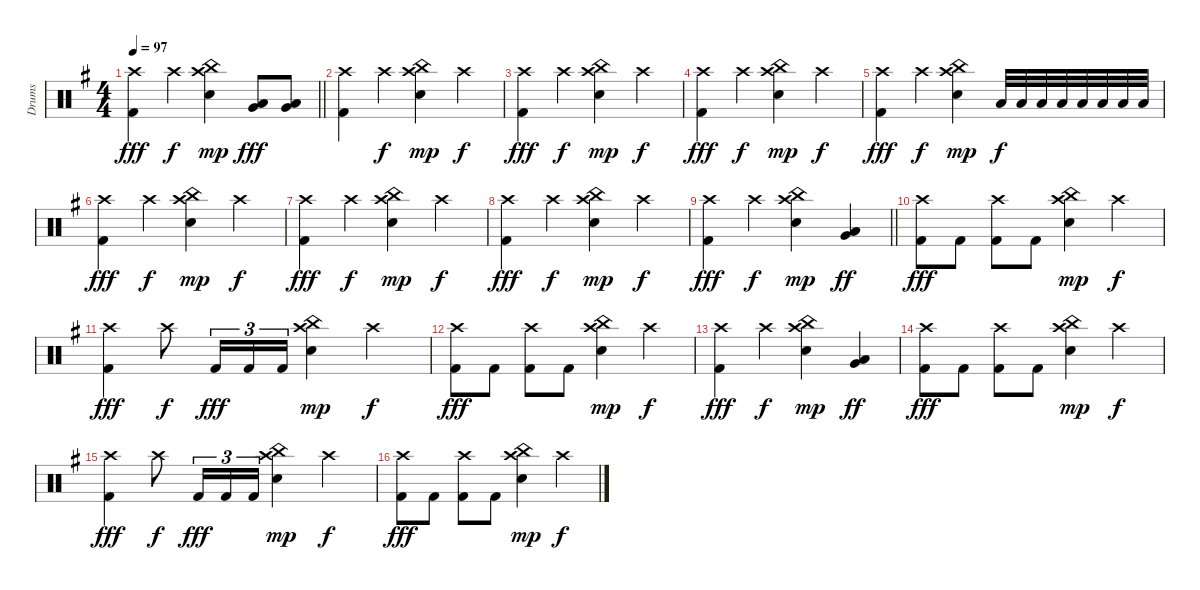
\track ("Drums" "Drums") {instrument percussion}
\staff {score}
\articulation defaults
\ts (4 4)
\tempo 97
\clef neutral
\barLineRight lightlight
\ks eminor
("Crash high (hit)" "Kick (hit) 2").4{dy fff} "Crash high (hit)".4{dy f} ("Crash high (hit)" "China (hit)" "Snare (hit) 2").4{dy mp} ("Low Tom (hit)" "Very Low Tom (hit)").8{dy fff} ("Low Tom (hit)" "Very Low Tom (hit)").8 |
("Crash high (hit)" "Kick (hit) 2").4 "Crash high (hit)".4{dy f} ("Crash high (hit)" "China (hit)" "Snare (hit) 2").4{dy mp} "Crash high (hit)".4{dy f} |
("Crash high (hit)" "Kick (hit) 2").4{dy fff} "Crash high (hit)".4{dy f} ("Crash high (hit)" "China (hit)" "Snare (hit) 2").4{dy mp} "Crash high (hit)".4{dy f} |
("Crash high (hit)" "Kick (hit) 2").4{dy fff} "Crash high (hit)".4{dy f} ("Crash high (hit)" "China (hit)" "Snare (hit) 2").4{dy mp} "Crash high (hit)".4{dy f} |
("Crash high (hit)" "Kick (hit) 2").4{dy fff} "Crash high (hit)".4{dy f} ("Crash high (hit)" "China (hit)" "Snare (hit) 2").4{dy mp} "Low Tom (hit)".32{dy f} "Low Tom (hit)".32 "Low Tom (hit)".32 "Low Tom (hit)".32 "Low Tom (hit)".32 "Low Tom (hit)".32 "Low Tom (hit)".32 "Low Tom (hit)".32 |
("Crash high (hit)" "Kick (hit) 2").4{dy fff} "Crash high (hit)".4{dy f} ("Crash high (hit)" "China (hit)" "Snare (hit) 2").4{dy mp} "Crash high (hit)".4{dy f} |
("Crash high (hit)" "Kick (hit) 2").4{dy fff} "Crash high (hit)".4{dy f} ("Crash high (hit)" "China (hit)" "Snare (hit) 2").4{dy mp} "Crash high (hit)".4{dy f} |
("Crash high (hit)" "Kick (hit) 2").4{dy fff} "Crash high (hit)".4{dy f} ("Crash high (hit)" "China (hit)" "Snare (hit) 2").4{dy mp} "Crash high (hit)".4{dy f} |
\barLineRight lightlight
("Crash high (hit)" "Kick (hit) 2").4{dy fff} "Crash high (hit)".4{dy f} ("Crash high (hit)" "China (hit)" "Snare (hit) 2").4{dy mp} ("Low Tom (hit)" "Very Low Tom (hit)").4{dy ff} |
("Crash high (hit)" "Kick (hit) 2").8{dy fff} "Kick (hit) 2".8 ("Crash high (hit)" "Kick (hit) 2").8 "Kick (hit) 2".8 ("Crash high (hit)" "China (hit)" "Snare (hit) 2").4{dy mp} "Crash high (hit)".4{dy f} |
("Crash high (hit)" "Kick (hit) 2").4{dy fff} "Crash high (hit)".8{dy f} "Kick (hit) 2".16{tu (3 2) dy fff} "Kick (hit) 2".16{tu (3 2)} "Kick (hit) 2".16{tu (3 2)} ("Crash high (hit)" "China (hit)" "Snare (hit) 2").4{dy mp} "Crash high (hit)".4{dy f} |
("Crash high (hit)" "Kick (hit) 2").8{dy fff} "Kick (hit) 2".8 ("Crash high (hit)" "Kick (hit) 2").8 "Kick (hit) 2".8 ("Crash high (hit)" "China (hit)" "Snare (hit) 2").4{dy mp} "Crash high (hit)".4{dy f} |
("Crash high (hit)" "Kick (hit) 2").4{dy fff} "Crash high (hit)".4{dy f} ("Crash high (hit)" "China (hit)" "Snare (hit) 2").4{dy mp} ("Low Tom (hit)" "Very Low Tom (hit)").4{dy ff} |
("Crash high (hit)" "Kick (hit) 2").8{dy fff} "Kick (hit) 2".8 ("Crash high (hit)" "Kick (hit) 2").8 "Kick (hit) 2".8 ("Crash high (hit)" "China (hit)" "Snare (hit) 2").4{dy mp} "Crash high (hit)".4{dy f} |
("Crash high (hit)" "Kick (hit) 2").4{dy fff} "Crash high (hit)".8{dy f} "Kick (hit) 2".16{tu (3 2) dy fff} "Kick (hit) 2".16{tu (3 2)} "Kick (hit) 2".16{tu (3 2)} ("Crash high (hit)" "China (hit)" "Snare (hit) 2").4{dy mp} "Crash high (hit)".4{dy f} |
("Crash high (hit)" "Kick (hit) 2").8{dy fff} "Kick (hit) 2".8 ("Crash high (hit)" "Kick (hit) 2").8 "Kick (hit) 2".8 ("Crash high (hit)" "China (hit)" "Snare (hit) 2").4{dy mp} "Crash high (hit)".4{dy f}
